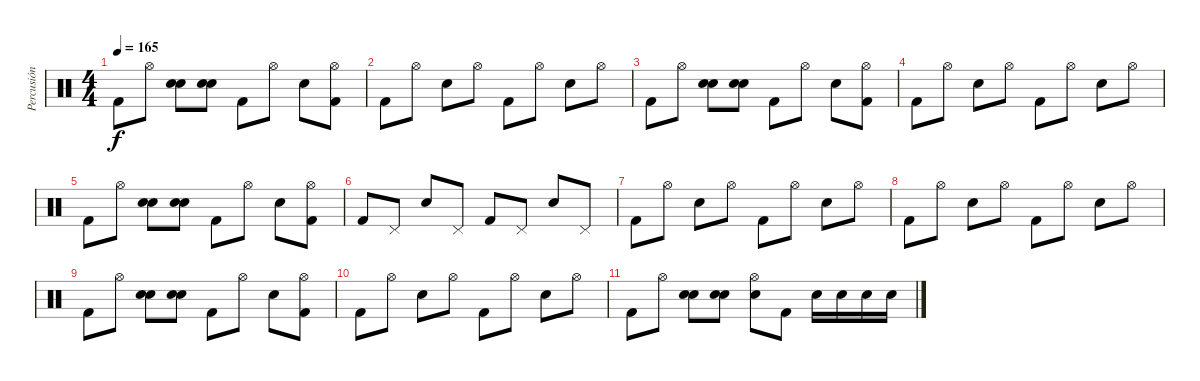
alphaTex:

\track ("Percusión" "Percusión") {instrument percussion}
\staff {score}
\articulation defaults
\ts (4 4)
\tempo 165
\clef neutral
\ks c "Kick (hit) 2".8{dy f} "Hi-Hat (open)".8
("Snare (hit) 2" "Snare (hit) 2").8 ("Snare (hit) 2" "Snare (hit) 2").8 "Kick (hit) 2".8 "Hi-Hat (open)".8 "Snare (hit) 2".8 ("Kick (hit) 2" "Hi-Hat (open)").8 |
"Kick (hit) 2".8 "Hi-Hat (open)".8 "Snare (hit) 2".8 "Hi-Hat (open)".8 "Kick (hit) 2".8 "Hi-Hat (open)".8 "Snare (hit) 2".8 "Hi-Hat (open)".8 |
"Kick (hit) 2".8 "Hi-Hat (open)".8 ("Snare (hit) 2" "Snare (hit) 2").8 ("Snare (hit) 2" "Snare (hit) 2").8 "Kick (hit) 2".8 "Hi-Hat (open)".8 "Snare (hit) 2".8 ("Kick (hit) 2" "Hi-Hat (open)").8 |
"Kick (hit) 2".8 "Hi-Hat (open)".8 "Snare (hit) 2".8 "Hi-Hat (open)".8 "Kick (hit) 2".8 "Hi-Hat (open)".8 "Snare (hit) 2".8 "Hi-Hat (open)".8 |
"Kick (hit) 2".8 "Hi-Hat (open)".8 ("Snare (hit) 2" "Snare (hit) 2").8 ("Snare (hit) 2" "Snare (hit) 2").8 "Kick (hit) 2".8 "Hi-Hat (open)".8 "Snare (hit) 2".8 ("Kick (hit) 2" "Hi-Hat (open)").8 |
"Kick (hit) 2".8 "Pedal Hi-Hat (hit)".8 "Snare (hit) 2".8 "Pedal Hi-Hat (hit)".8 "Kick (hit) 2".8 "Pedal Hi-Hat (hit)".8 "Snare (hit) 2".8 "Pedal Hi-Hat (hit)".8 |
"Kick (hit) 2".8 "Hi-Hat (open)".8 "Snare (hit) 2".8 "Hi-Hat (open)".8 "Kick (hit) 2".8 "Hi-Hat (open)".8 "Snare (hit) 2".8 "Hi-Hat (open)".8 |
"Kick (hit) 2".8 "Hi-Hat (open)".8 "Snare (hit) 2".8 "Hi-Hat (open)".8 "Kick (hit) 2".8 "Hi-Hat (open)".8 "Snare (hit) 2".8 "Hi-Hat (open)".8 |
"Kick (hit) 2".8 "Hi-Hat (open)".8 ("Snare (hit) 2" "Snare (hit) 2").8 ("Snare (hit) 2" "Snare (hit) 2").8 "Kick (hit) 2".8 "Hi-Hat (open)".8 "Snare (hit) 2".8 ("Kick (hit) 2" "Hi-Hat (open)").8 |
"Kick (hit) 2".8 "Hi-Hat (open)".8 "Snare (hit) 2".8 "Hi-Hat (open)".8 "Kick (hit) 2".8 "Hi-Hat (open)".8 "Snare (hit) 2".8 "Hi-Hat (open)".8 |
"Kick (hit) 2".8 "Hi-Hat (open)".8 ("Snare (hit) 2" "Snare (hit) 2").8 ("Snare (hit) 2" "Snare (hit) 2").8 ("Hi-Hat (open)" "Snare (hit) 2").8 "Kick (hit) 2".8 "Snare (hit) 2".16 "Snare (hit) 2".16 "Snare (hit) 2".16 "Snare (hit) 2".16
